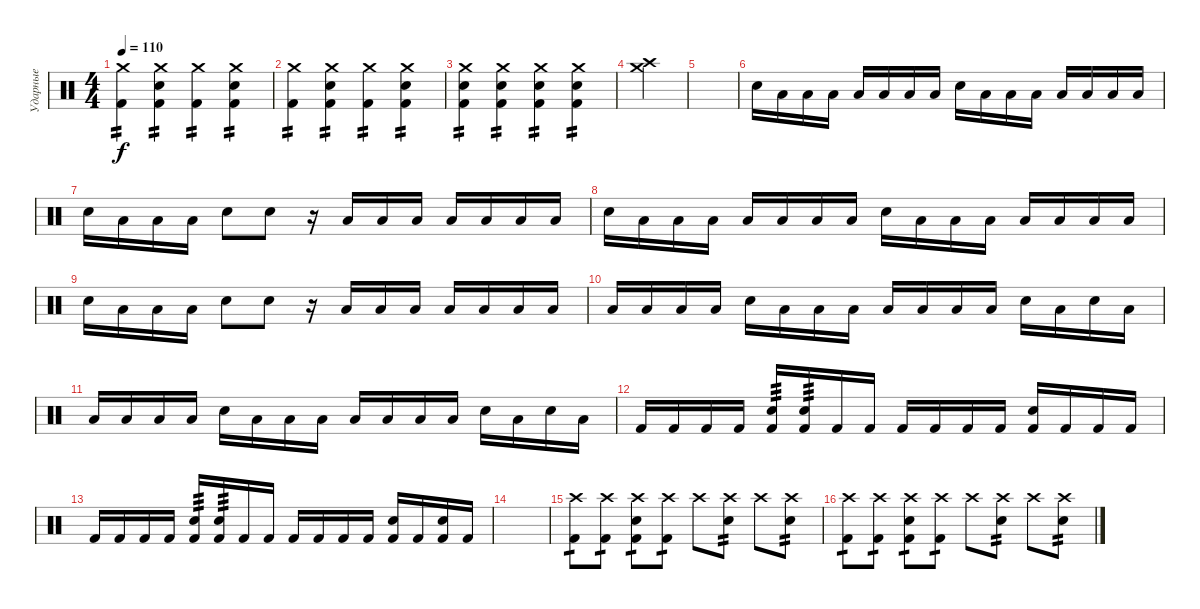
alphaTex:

\track ("Ударные" "Ударные") {instrument percussion}
\staff {score}
\articulation defaults
\ts (4 4)
\tempo 110
\clef neutral
\ks c
("Crash medium (hit)" "Kick (hit) 2").4{tp 2 dy f} ("Crash medium (hit)" "Snare (hit) 2" "Kick (hit) 2").4{tp 2} ("Crash medium (hit)" "Kick (hit) 2").4{tp 2} ("Crash medium (hit)" "Snare (hit) 2" "Kick (hit) 2").4{tp 2} |
("Crash medium (hit)" "Kick (hit) 2").4{tp 2} ("Crash medium (hit)" "Snare (hit) 2" "Kick (hit) 2").4{tp 2} ("Crash medium (hit)" "Kick (hit) 2").4{tp 2} ("Crash medium (hit)" "Snare (hit) 2" "Kick (hit) 2").4{tp 2} |
("Crash medium (hit)" "Snare (hit) 2" "Kick (hit) 2").4{tp 2} ("Crash medium (hit)" "Snare (hit) 2" "Kick (hit) 2").4{tp 2} ("Crash medium (hit)" "Snare (hit) 2" "Kick (hit) 2").4{tp 2} ("Crash medium (hit)" "Snare (hit) 2" "Kick (hit) 2").4{tp 2} |
("Crash medium (hit)" "Crash high (hit)").4 |
|
"Snare (hit) 2".16 "Low Tom (hit)".16 "Low Tom (hit)".16 "Low Floor Tom (hit)".16 "Low Floor Tom (hit)".16 "Low Tom (hit)".16 "Low Tom (hit)".16 "Low Tom (hit)".16 "Snare (hit) 2".16 "Low Tom (hit)".16 "Low Tom (hit)".16 "Low Floor Tom (hit)".16 "Low Floor Tom (hit)".16 "Low Tom (hit)".16 "Low Floor Tom (hit)".16 "Low Tom (hit)".16 |
"Snare (hit) 2".16 "Low Tom (hit)".16 "Low Tom (hit)".16 "Low Floor Tom (hit)".16 "Snare (hit) 2".8 "Snare (hit) 2".8 r.16 "Low Tom (hit)".16 "Low Tom (hit)".16 "Low Floor Tom (hit)".16 "Low Floor Tom (hit)".16 "Low Tom (hit)".16 "Low Floor Tom (hit)".16 "Low Tom (hit)".16 |
"Snare (hit) 2".16 "Low Tom (hit)".16 "Low Tom (hit)".16 "Low Floor Tom (hit)".16 "Low Floor Tom (hit)".16 "Low Tom (hit)".16 "Low Tom (hit)".16 "Low Tom (hit)".16 "Snare (hit) 2".16 "Low Tom (hit)".16 "Low Tom (hit)".16 "Low Floor Tom (hit)".16 "Low Floor Tom (hit)".16 "Low Tom (hit)".16 "Low Floor Tom (hit)".16 "Low Tom (hit)".16 |
"Snare (hit) 2".16 "Low Tom (hit)".16 "Low Tom (hit)".16 "Low Floor Tom (hit)".16 "Snare (hit) 2".8 "Snare (hit) 2".8 r.16 "Low Tom (hit)".16 "Low Tom (hit)".16 "Low Floor Tom (hit)".16 "Low Floor Tom (hit)".16 "Low Tom (hit)".16 "Low Floor Tom (hit)".16 "Low Tom (hit)".16 |
"Low Tom (hit)".16 "Low Tom (hit)".16 "Low Tom (hit)".16 "Low Floor Tom (hit)".16 "Snare (hit) 2".16 "Low Floor Tom (hit)".16 "Low Floor Tom (hit)".16 "Low Tom (hit)".16 "Low Floor Tom (hit)".16 "Low Floor Tom (hit)".16 "Low Tom (hit)".16 "Low Tom (hit)".16 "Snare (hit) 2".16 "Low Floor Tom (hit)".16 "Snare (hit) 2".16 "Low Floor Tom (hit)".16 |
"Low Tom (hit)".16 "Low Tom (hit)".16 "Low Tom (hit)".16 "Low Floor Tom (hit)".16 "Snare (hit) 2".16 "Low Floor Tom (hit)".16 "Low Floor Tom (hit)".16 "Low Tom (hit)".16 "Low Floor Tom (hit)".16 "Low Floor Tom (hit)".16 "Low Tom (hit)".16 "Low Tom (hit)".16 "Snare (hit) 2".16 "Low Floor Tom (hit)".16 "Snare (hit) 2".16 "Low Floor Tom (hit)".16 |
"Kick (hit) 2".16 "Kick (hit) 2".16 "Kick (hit) 2".16 "Kick (hit) 2".16 ("Snare (hit) 2" "Kick (hit) 2").16{tp 3} ("Snare (hit) 2" "Kick (hit) 2").16{tp 3} "Kick (hit) 2".16 "Kick (hit) 2".16 "Kick (hit) 2".16 "Kick (hit) 2".16 "Kick (hit) 2".16 "Kick (hit) 2".16 ("Snare (hit) 2" "Kick (hit) 2").16 "Kick (hit) 2".16 "Kick (hit) 2".16 "Kick (hit) 2".16 |
"Kick (hit) 2".16 "Kick (hit) 2".16 "Kick (hit) 2".16 "Kick (hit) 2".16 ("Snare (hit) 2" "Kick (hit) 2").16{tp 3} ("Snare (hit) 2" "Kick (hit) 2").16{tp 3} "Kick (hit) 2".16 "Kick (hit) 2".16 "Kick (hit) 2".16 "Kick (hit) 2".16 "Kick (hit) 2".16 "Kick (hit) 2".16 ("Snare (hit) 2" "Kick (hit) 2").16 "Kick (hit) 2".16 ("Snare (hit) 2" "Kick (hit) 2").16 "Kick (hit) 2".16 |
|
("Crash high (hit)" "Kick (hit) 2").8{tp 1} ("Crash high (hit)" "Kick (hit) 2").8{tp 1} ("Crash high (hit)" "Snare (hit) 2" "Kick (hit) 2").8{tp 1} ("Crash high (hit)" "Kick (hit) 2").8{tp 1} "Crash high (hit)".8 ("Crash high (hit)" "Snare (hit) 2").8{tp 2} "Crash high (hit)".8 ("Crash high (hit)" "Snare (hit) 2").8{tp 2} |
("Crash high (hit)" "Kick (hit) 2").8{tp 1} ("Crash high (hit)" "Kick (hit) 2").8{tp 1} ("Crash high (hit)" "Snare (hit) 2" "Kick (hit) 2").8{tp 1} ("Crash high (hit)" "Kick (hit) 2").8{tp 1} "Crash high (hit)".8 ("Crash high (hit)" "Snare (hit) 2").8{tp 2} "Crash high (hit)".8 ("Crash high (hit)" "Snare (hit) 2").8{tp 2}
